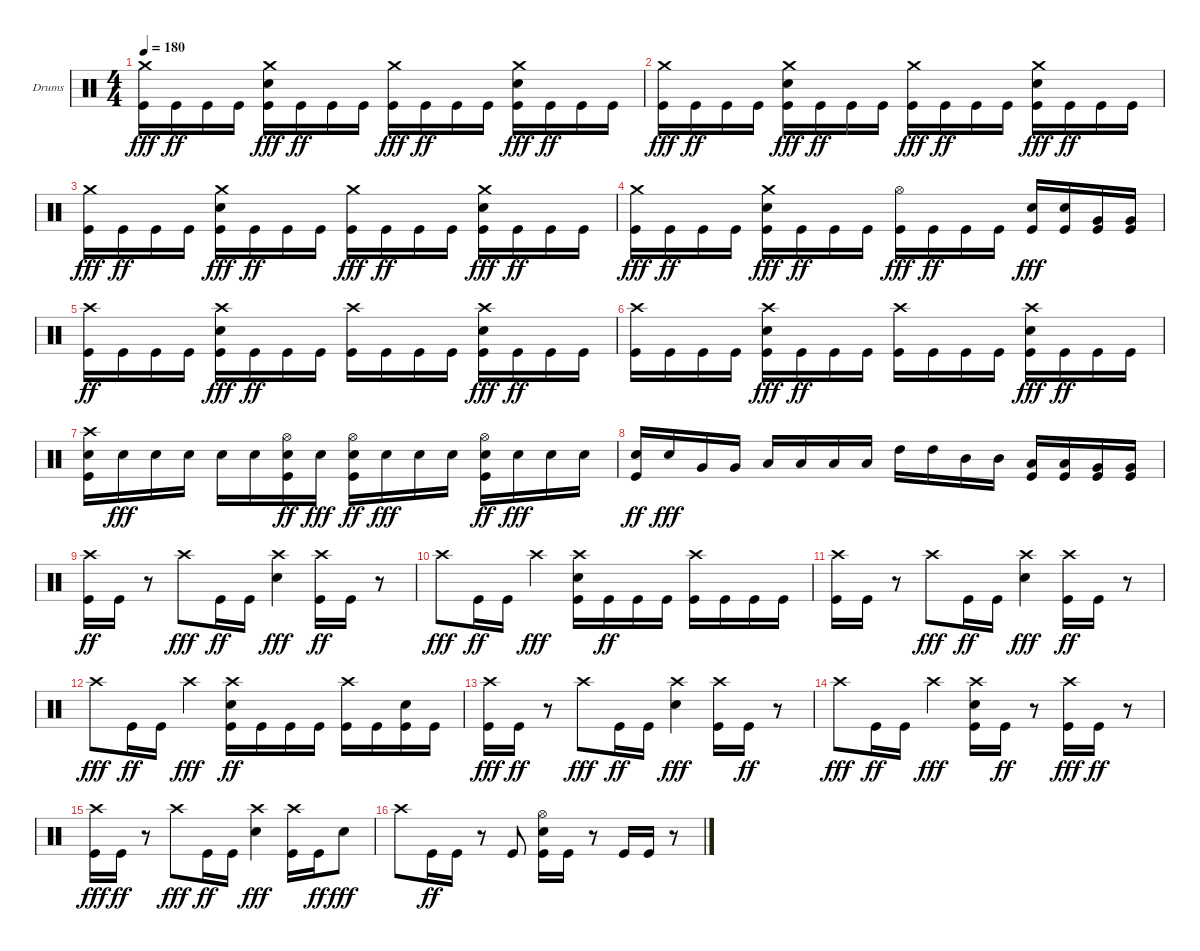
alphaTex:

\bracketExtendMode groupsimilarinstruments
\firstSystemTrackNameOrientation horizontal
\otherSystemsTrackNameOrientation horizontal
\track ("Drumkit" "Drums") {instrument percussion}
\staff {score}
\articulation defaults
\ts (4 4)
\tempo 180
\clef neutral
\ks c
("Crash medium (hit)" "Kick (hit)").16{dy fff} "Kick (hit)".16{dy ff} "Kick (hit)".16 "Kick (hit)".16 ("Crash medium (hit)" "Snare (hit) 2" "Kick (hit)").16{dy fff} "Kick (hit)".16{dy ff} "Kick (hit)".16 "Kick (hit)".16 ("Crash medium (hit)" "Kick (hit)").16{dy fff} "Kick (hit)".16{dy ff} "Kick (hit)".16 "Kick (hit)".16 ("Crash medium (hit)" "Snare (hit) 2" "Kick (hit)").16{dy fff} "Kick (hit)".16{dy ff} "Kick (hit)".16 "Kick (hit)".16 |
("Crash medium (hit)" "Kick (hit)").16{dy fff} "Kick (hit)".16{dy ff} "Kick (hit)".16 "Kick (hit)".16 ("Crash medium (hit)" "Snare (hit) 2" "Kick (hit)").16{dy fff} "Kick (hit)".16{dy ff} "Kick (hit)".16 "Kick (hit)".16 ("Crash medium (hit)" "Kick (hit)").16{dy fff} "Kick (hit)".16{dy ff} "Kick (hit)".16 "Kick (hit)".16 ("Crash medium (hit)" "Snare (hit) 2" "Kick (hit)").16{dy fff} "Kick (hit)".16{dy ff} "Kick (hit)".16 "Kick (hit)".16 |
("Crash medium (hit)" "Kick (hit)").16{dy fff} "Kick (hit)".16{dy ff} "Kick (hit)".16 "Kick (hit)".16 ("Crash medium (hit)" "Snare (hit) 2" "Kick (hit)").16{dy fff} "Kick (hit)".16{dy ff} "Kick (hit)".16 "Kick (hit)".16 ("Crash medium (hit)" "Kick (hit)").16{dy fff} "Kick (hit)".16{dy ff} "Kick (hit)".16 "Kick (hit)".16 ("Crash medium (hit)" "Snare (hit) 2" "Kick (hit)").16{dy fff} "Kick (hit)".16{dy ff} "Kick (hit)".16 "Kick (hit)".16 |
("Crash medium (hit)" "Kick (hit)").16{dy fff} "Kick (hit)".16{dy ff} "Kick (hit)".16 "Kick (hit)".16 ("Crash medium (hit)" "Snare (hit) 2" "Kick (hit)").16{dy fff} "Kick (hit)".16{dy ff} "Kick (hit)".16 "Kick (hit)".16 ("Hi-Hat (open)" "Kick (hit)").16{dy fff} "Kick (hit)".16{dy ff} "Kick (hit)".16 "Kick (hit)".16 ("Snare (hit) 2" "Kick (hit)").16{dy fff} ("Snare (hit) 2" "Kick (hit)").16 ("Very Low Tom (hit)" "Kick (hit)").16 ("Very Low Tom (hit)" "Kick (hit)").16 |
("Kick (hit)" "Crash high (hit)").16{dy ff} "Kick (hit)".16 "Kick (hit)".16 "Kick (hit)".16 ("Snare (hit) 2" "Kick (hit)" "Crash high (hit)").16{dy fff} "Kick (hit)".16{dy ff} "Kick (hit)".16 "Kick (hit)".16 ("Kick (hit)" "Crash high (hit)").16 "Kick (hit)".16 "Kick (hit)".16 "Kick (hit)".16 ("Snare (hit) 2" "Kick (hit)" "Crash high (hit)").16{dy fff} "Kick (hit)".16{dy ff} "Kick (hit)".16 "Kick (hit)".16 |
("Kick (hit)" "Crash high (hit)").16 "Kick (hit)".16 "Kick (hit)".16 "Kick (hit)".16 ("Snare (hit) 2" "Kick (hit)" "Crash high (hit)").16{dy fff} "Kick (hit)".16{dy ff} "Kick (hit)".16 "Kick (hit)".16 ("Kick (hit)" "Crash high (hit)").16 "Kick (hit)".16 "Kick (hit)".16 "Kick (hit)".16 ("Snare (hit) 2" "Kick (hit)" "Crash high (hit)").16{dy fff} "Kick (hit)".16{dy ff} "Kick (hit)".16 "Kick (hit)".16 |
("Kick (hit)" "Crash high (hit)" "Snare (hit) 2").16 "Snare (hit) 2".16{dy fff} "Snare (hit) 2".16 "Snare (hit) 2".16 "Snare (hit) 2".16 "Snare (hit) 2".16 ("Kick (hit)" "Hi-Hat (open)" "Snare (hit) 2").16{dy ff} "Snare (hit) 2".16{dy fff} ("Kick (hit)" "Hi-Hat (open)" "Snare (hit) 2").16{dy ff} "Snare (hit) 2".16{dy fff} "Snare (hit) 2".16 "Snare (hit) 2".16 ("Kick (hit)" "Hi-Hat (open)" "Snare (hit) 2").16{dy ff} "Snare (hit) 2".16{dy fff} "Snare (hit) 2".16 "Snare (hit) 2".16 |
("Kick (hit)" "Snare (hit) 2").16{dy ff} "Snare (hit) 2".16{dy fff} "Very Low Tom (hit)".16 "Very Low Tom (hit)".16 "Low Tom (hit)".16 "Low Tom (hit)".16 "Low Tom (hit)".16 "Low Tom (hit)".16 "High Tom (hit)".16 "High Tom (hit)".16 "Mid Tom (hit)".16 "Mid Tom (hit)".16 ("Low Tom (hit)" "Kick (hit)").16 ("Low Tom (hit)" "Kick (hit)").16 ("Very Low Tom (hit)" "Kick (hit)").16 ("Very Low Tom (hit)" "Kick (hit)").16 |
("Kick (hit)" "Crash high (hit)").16{dy ff} "Kick (hit)".16 r.8 "Crash high (hit)".8{dy fff} "Kick (hit)".16{dy ff} "Kick (hit)".16 ("Snare (hit) 2" "Crash high (hit)").4{dy fff} ("Kick (hit)" "Crash high (hit)").16{dy ff} "Kick (hit)".16 r.8 |
"Crash high (hit)".8{dy fff} "Kick (hit)".16{dy ff} "Kick (hit)".16 "Crash high (hit)".4{dy fff} ("Snare (hit) 2" "Kick (hit)" "Crash high (hit)").16 "Kick (hit)".16{dy ff} "Kick (hit)".16 "Kick (hit)".16 ("Kick (hit)" "Crash high (hit)").16 "Kick (hit)".16 "Kick (hit)".16 "Kick (hit)".16 |
("Kick (hit)" "Crash high (hit)").16 "Kick (hit)".16 r.8 "Crash high (hit)".8{dy fff} "Kick (hit)".16{dy ff} "Kick (hit)".16 ("Snare (hit) 2" "Crash high (hit)").4{dy fff} ("Kick (hit)" "Crash high (hit)").16{dy ff} "Kick (hit)".16 r.8 |
"Crash high (hit)".8{dy fff} "Kick (hit)".16{dy ff} "Kick (hit)".16 "Crash high (hit)".4{dy fff} ("Kick (hit)" "Snare (hit) 2" "Crash high (hit)").16{dy ff} "Kick (hit)".16 "Kick (hit)".16 "Kick (hit)".16 ("Kick (hit)" "Crash high (hit)").16 "Kick (hit)".16 ("Kick (hit)" "Snare (hit) 2").16 "Kick (hit)".16 |
("Crash high (hit)" "Kick (hit)").16{dy fff} "Kick (hit)".16{dy ff} r.8 "Crash high (hit)".8{dy fff} "Kick (hit)".16{dy ff} "Kick (hit)".16 ("Crash high (hit)" "Snare (hit) 2").4{dy fff} ("Crash high (hit)" "Kick (hit)").16 "Kick (hit)".16{dy ff} r.8 |
"Crash high (hit)".8{dy fff} "Kick (hit)".16{dy ff} "Kick (hit)".16 "Crash high (hit)".4{dy fff} ("Crash high (hit)" "Snare (hit) 2" "Kick (hit)").16 "Kick (hit)".16{dy ff} r.8 ("Crash high (hit)" "Kick (hit)").16{dy fff} "Kick (hit)".16{dy ff} r.8 |
("Crash high (hit)" "Kick (hit)").16{dy fff} "Kick (hit)".16{dy ff} r.8 "Crash high (hit)".8{dy fff} "Kick (hit)".16{dy ff} "Kick (hit)".16 ("Crash high (hit)" "Snare (hit) 2").4{dy fff} ("Crash high (hit)" "Kick (hit)").16 "Kick (hit)".16{dy ff} "Snare (hit) 2".8{dy fff} |
"Crash high (hit)".8 "Kick (hit)".16{dy ff} "Kick (hit)".16 r.8 "Kick (hit)".8 ("Kick (hit)" "Hi-Hat (open)" "Snare (hit) 2").16 "Kick (hit)".16 r.8 "Kick (hit)".16 "Kick (hit)".16 r.8
